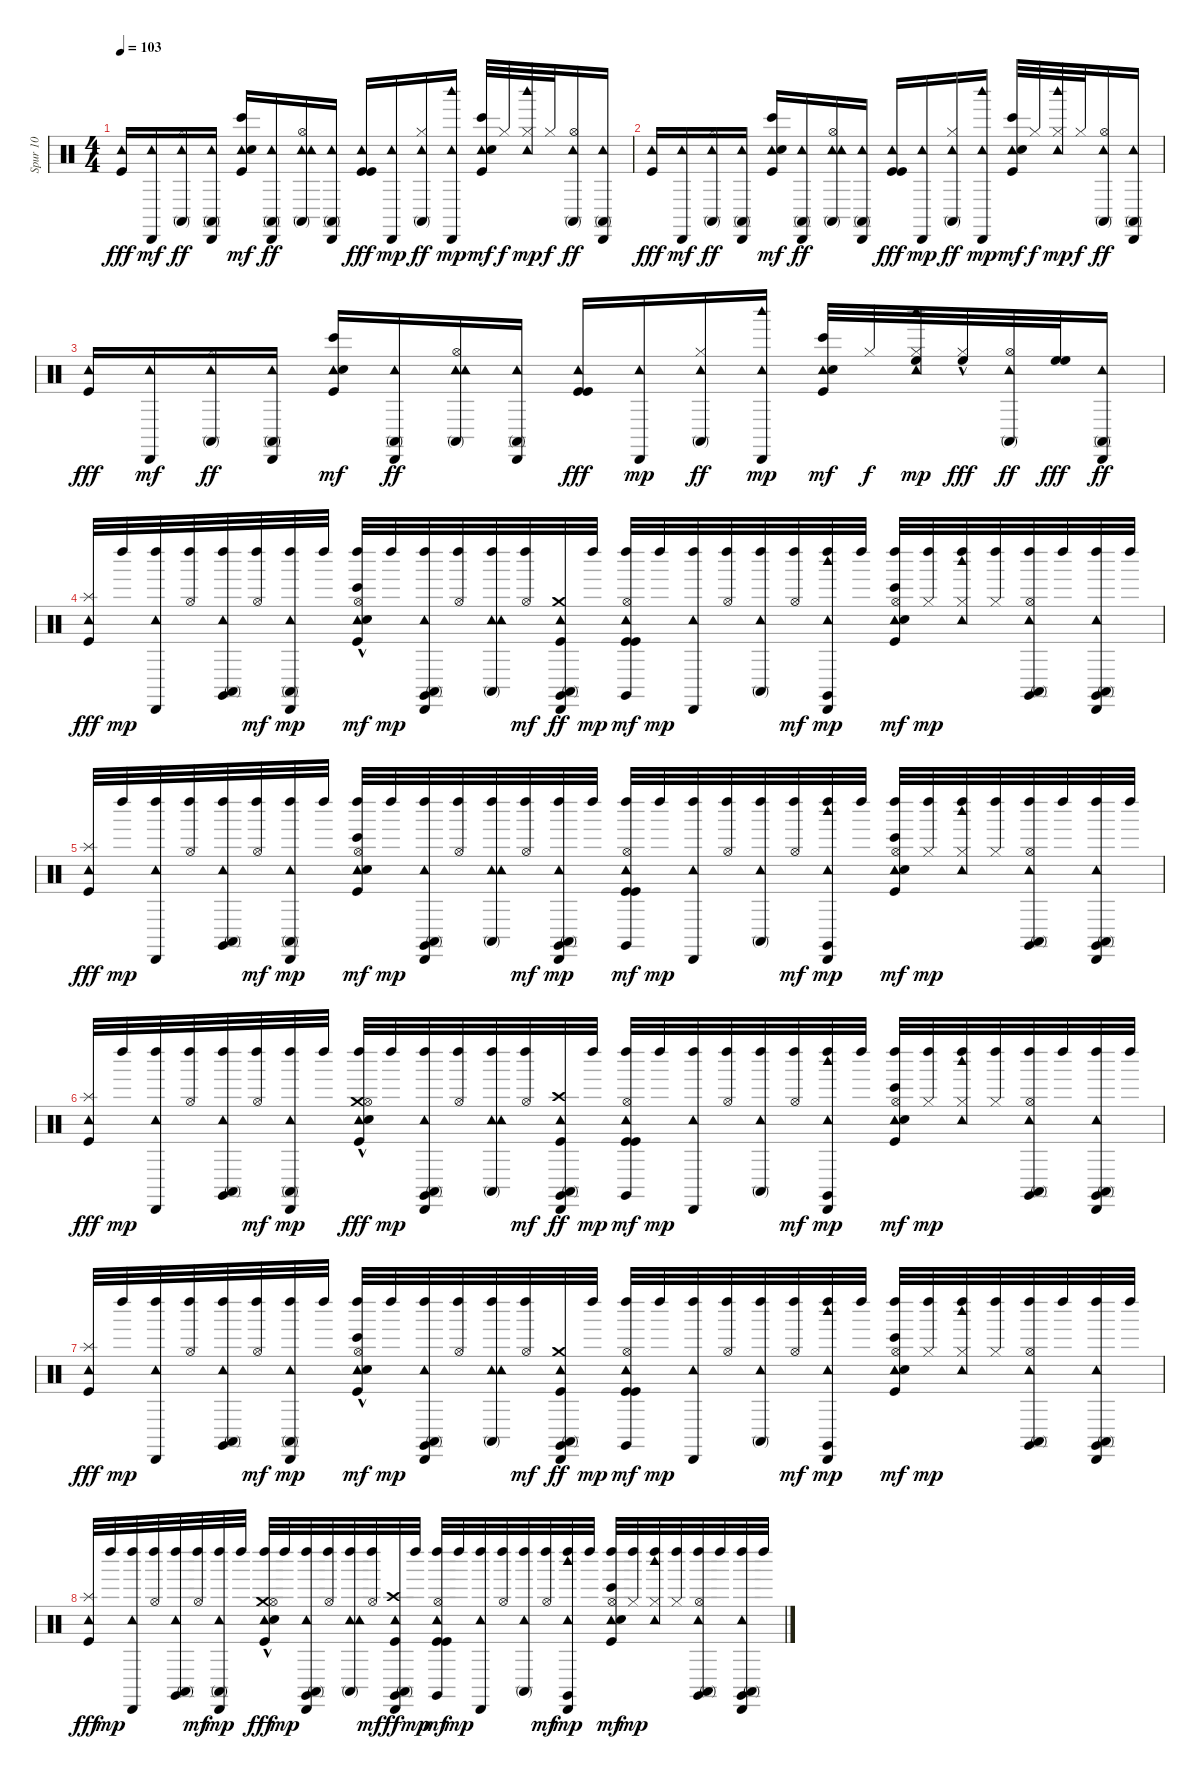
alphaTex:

\track ("Spur 10" "Spur 10") {instrument percussion}
\staff {score}
\articulation defaults
\ts (4 4)
\tempo 103
\clef neutral
\ks c
("Tambourine (hit)" "Kick (hit)").16{dy fff} ("Tambourine (hit)" "Cabasa (hit)").16{dy mf} ("Tambourine (hit)" "Hi-Hat (closed)" "Conga high (mute)").16{dy ff} ("Tambourine (hit)" "Cabasa (hit)" "Conga high (mute)").16 ("Tambourine (hit)" "Kick (hit)" "Electric Snare (hit)" "Bongo High (hit)").16{dy mf} ("Tambourine (hit)" "Cabasa (hit)" "Conga high (mute)").16{dy ff} ("Tambourine (hit)" "Hi-Hat (open)" "Tambourine (hit)" "Conga high (mute)").16 ("Tambourine (hit)" "Cabasa (hit)" "Conga high (mute)").16 ("Tambourine (hit)" "Kick (hit)" "Kick (hit)").16{dy fff} ("Cabasa (hit)" "Tambourine (hit)").16{dy mp} ("Hi-Hat (closed)" "Tambourine (hit)" "Conga high (mute)").16{dy ff} ("Cabasa (hit)" "Tambourine (hit)" "Woodblock high (hit)").16{dy mp} ("Tambourine (hit)" "Kick (hit)" "Electric Snare (hit)" "Bongo High (hit)").32{dy mf} "Hi-Hat (closed)".32{dy f} ("Hi-Hat (closed)" "Tambourine (hit)" "Woodblock high (hit)").32{dy mp} "Hi-Hat (closed)".32{dy f} ("Hi-Hat (open)" "Tambourine (hit)" "Conga high (mute)").16{dy ff} ("Tambourine (hit)" "Cabasa (hit)" "Conga high (mute)").16 |
("Tambourine (hit)" "Kick (hit)").16{dy fff} ("Tambourine (hit)" "Cabasa (hit)").16{dy mf} ("Tambourine (hit)" "Hi-Hat (closed)" "Conga high (mute)").16{dy ff} ("Tambourine (hit)" "Cabasa (hit)" "Conga high (mute)").16 ("Tambourine (hit)" "Kick (hit)" "Electric Snare (hit)" "Bongo High (hit)").16{dy mf} ("Tambourine (hit)" "Cabasa (hit)" "Conga high (mute)").16{dy ff} ("Tambourine (hit)" "Hi-Hat (open)" "Tambourine (hit)" "Conga high (mute)").16 ("Tambourine (hit)" "Cabasa (hit)" "Conga high (mute)").16 ("Tambourine (hit)" "Kick (hit)" "Kick (hit)").16{dy fff} ("Cabasa (hit)" "Tambourine (hit)").16{dy mp} ("Hi-Hat (closed)" "Tambourine (hit)" "Conga high (mute)").16{dy ff} ("Cabasa (hit)" "Tambourine (hit)" "Woodblock high (hit)").16{dy mp} ("Tambourine (hit)" "Kick (hit)" "Electric Snare (hit)" "Bongo High (hit)").32{dy mf} "Hi-Hat (closed)".32{dy f} ("Hi-Hat (closed)" "Tambourine (hit)" "Woodblock high (hit)").32{dy mp} "Hi-Hat (closed)".32{dy f} ("Hi-Hat (open)" "Tambourine (hit)" "Conga high (mute)").16{dy ff} ("Tambourine (hit)" "Cabasa (hit)" "Conga high (mute)").16 |
("Tambourine (hit)" "Kick (hit)").16{dy fff} ("Tambourine (hit)" "Cabasa (hit)").16{dy mf} ("Tambourine (hit)" "Hi-Hat (closed)" "Conga high (mute)").16{dy ff} ("Tambourine (hit)" "Cabasa (hit)" "Conga high (mute)").16 ("Tambourine (hit)" "Kick (hit)" "Electric Snare (hit)" "Bongo High (hit)").16{dy mf} ("Tambourine (hit)" "Cabasa (hit)" "Conga high (mute)").16{dy ff} ("Tambourine (hit)" "Hi-Hat (open)" "Tambourine (hit)" "Conga high (mute)").16 ("Tambourine (hit)" "Cabasa (hit)" "Conga high (mute)").16 ("Tambourine (hit)" "Kick (hit)" "Kick (hit)").16{dy fff} ("Cabasa (hit)" "Tambourine (hit)").16{dy mp} ("Hi-Hat (closed)" "Tambourine (hit)" "Conga high (mute)").16{dy ff} ("Cabasa (hit)" "Tambourine (hit)" "Woodblock high (hit)").16{dy mp} ("Tambourine (hit)" "Kick (hit)" "Electric Snare (hit)" "Bongo High (hit)").32{dy mf} "Hi-Hat (closed)".32{dy f} ("Hi-Hat (closed)" "Tambourine (hit)" "Woodblock high (hit)" "High Floor Tom (hit)").32{dy mp} ("High Floor Tom (hit)"{hac} "Hi-Hat (closed)").32{dy fff} ("Hi-Hat (open)" "Tambourine (hit)" "Conga high (mute)").32{dy ff} ("High Floor Tom (hit)" "High Floor Tom (hit)").32{dy fff} ("Tambourine (hit)" "Cabasa (hit)" "Conga high (mute)").16{dy ff} |
("Tambourine (hit)" "Kick (hit)" "Splash (hit)").32{dy fff} "Left Maraca (hit)".32{dy mp} ("Tambourine (hit)" "Cabasa (hit)" "Left Maraca (hit)").32 ("Hi-Hat (open)" "Left Maraca (hit)").32 ("Claves (hit)" "Tambourine (hit)" "Conga high (mute)" "Left Maraca (hit)").32 ("Left Maraca (hit)" "Hi-Hat (open)").32{dy mf} ("Tambourine (hit)" "Cabasa (hit)" "Conga high (mute)" "Left Maraca (hit)").32{dy mp} "Left Maraca (hit)".32 ("Tambourine (hit)" "Kick (hit)"{hac} "Left Maraca (hit)" "Hi-Hat (open)" "Electric Snare (hit)" "Bongo High (hit)").32{dy mf} "Left Maraca (hit)".32{dy mp} ("Claves (hit)" "Tambourine (hit)" "Cabasa (hit)" "Conga high (mute)" "Left Maraca (hit)").32 ("Hi-Hat (open)" "Left Maraca (hit)").32 ("Tambourine (hit)" "Tambourine (hit)" "Conga high (mute)" "Left Maraca (hit)").32 ("Left Maraca (hit)" "Hi-Hat (open)").32{dy mf} ("Claves (hit)" "Kick (hit)" "Crash medium (hit)" "Tambourine (hit)" "Cabasa (hit)" "Conga high (mute)").32{dy ff} "Left Maraca (hit)".32{dy mp} ("Claves (hit)" "Tambourine (hit)" "Kick (hit)" "Kick (hit)" "Left Maraca (hit)" "Hi-Hat (open)").32{dy mf} "Left Maraca (hit)".32{dy mp} ("Cabasa (hit)" "Tambourine (hit)" "Left Maraca (hit)").32 ("Hi-Hat (open)" "Left Maraca (hit)").32 ("Tambourine (hit)" "Conga high (mute)" "Left Maraca (hit)").32 ("Left Maraca (hit)" "Hi-Hat (open)").32{dy mf} ("Claves (hit)" "Cabasa (hit)" "Tambourine (hit)" "Woodblock high (hit)" "Left Maraca (hit)").32{dy mp} "Left Maraca (hit)".32 ("Tambourine (hit)" "Kick (hit)" "Left Maraca (hit)" "Hi-Hat (open)" "Electric Snare (hit)" "Bongo High (hit)").32{dy mf} ("Hi-Hat (closed)" "Left Maraca (hit)").32{dy mp} ("Hi-Hat (closed)" "Tambourine (hit)" "Woodblock high (hit)" "Left Maraca (hit)").32 ("Hi-Hat (closed)" "Left Maraca (hit)").32 ("Hi-Hat (open)" "Claves (hit)" "Tambourine (hit)" "Conga high (mute)" "Left Maraca (hit)").32 "Left Maraca (hit)".32 ("Claves (hit)" "Tambourine (hit)" "Cabasa (hit)" "Conga high (mute)" "Left Maraca (hit)").32 "Left Maraca (hit)".32 |
("Tambourine (hit)" "Kick (hit)" "Splash (hit)").32{dy fff} "Left Maraca (hit)".32{dy mp} ("Tambourine (hit)" "Cabasa (hit)" "Left Maraca (hit)").32 ("Hi-Hat (open)" "Left Maraca (hit)").32 ("Claves (hit)" "Tambourine (hit)" "Conga high (mute)" "Left Maraca (hit)").32 ("Left Maraca (hit)" "Hi-Hat (open)").32{dy mf} ("Tambourine (hit)" "Cabasa (hit)" "Conga high (mute)" "Left Maraca (hit)").32{dy mp} "Left Maraca (hit)".32 ("Tambourine (hit)" "Kick (hit)" "Left Maraca (hit)" "Hi-Hat (open)" "Electric Snare (hit)" "Bongo High (hit)").32{dy mf} "Left Maraca (hit)".32{dy mp} ("Claves (hit)" "Tambourine (hit)" "Cabasa (hit)" "Conga high (mute)" "Left Maraca (hit)").32 ("Hi-Hat (open)" "Left Maraca (hit)").32 ("Tambourine (hit)" "Tambourine (hit)" "Conga high (mute)" "Left Maraca (hit)").32 ("Left Maraca (hit)" "Hi-Hat (open)").32{dy mf} ("Claves (hit)" "Tambourine (hit)" "Cabasa (hit)" "Conga high (mute)" "Left Maraca (hit)").32{dy mp} "Left Maraca (hit)".32 ("Claves (hit)" "Tambourine (hit)" "Kick (hit)" "Kick (hit)" "Left Maraca (hit)" "Hi-Hat (open)").32{dy mf} "Left Maraca (hit)".32{dy mp} ("Cabasa (hit)" "Tambourine (hit)" "Left Maraca (hit)").32 ("Hi-Hat (open)" "Left Maraca (hit)").32 ("Tambourine (hit)" "Conga high (mute)" "Left Maraca (hit)").32 ("Left Maraca (hit)" "Hi-Hat (open)").32{dy mf} ("Claves (hit)" "Cabasa (hit)" "Tambourine (hit)" "Woodblock high (hit)" "Left Maraca (hit)").32{dy mp} "Left Maraca (hit)".32 ("Tambourine (hit)" "Kick (hit)" "Left Maraca (hit)" "Hi-Hat (open)" "Electric Snare (hit)" "Bongo High (hit)").32{dy mf} ("Hi-Hat (closed)" "Left Maraca (hit)").32{dy mp} ("Hi-Hat (closed)" "Tambourine (hit)" "Woodblock high (hit)" "Left Maraca (hit)").32 ("Hi-Hat (closed)" "Left Maraca (hit)").32 ("Hi-Hat (open)" "Claves (hit)" "Tambourine (hit)" "Conga high (mute)" "Left Maraca (hit)").32 "Left Maraca (hit)".32 ("Claves (hit)" "Tambourine (hit)" "Cabasa (hit)" "Conga high (mute)" "Left Maraca (hit)").32 "Left Maraca (hit)".32 |
("Tambourine (hit)" "Kick (hit)" "Splash (hit)").32{dy fff} "Left Maraca (hit)".32{dy mp} ("Tambourine (hit)" "Cabasa (hit)" "Left Maraca (hit)").32 ("Hi-Hat (open)" "Left Maraca (hit)").32 ("Claves (hit)" "Tambourine (hit)" "Conga high (mute)" "Left Maraca (hit)").32 ("Left Maraca (hit)" "Hi-Hat (open)").32{dy mf} ("Tambourine (hit)" "Cabasa (hit)" "Conga high (mute)" "Left Maraca (hit)").32{dy mp} "Left Maraca (hit)".32 ("Crash medium (hit)" "Tambourine (hit)" "Kick (hit)"{hac} "Left Maraca (hit)" "Hi-Hat (open)" "Electric Snare (hit)").32{dy fff} "Left Maraca (hit)".32{dy mp} ("Claves (hit)" "Tambourine (hit)" "Cabasa (hit)" "Conga high (mute)" "Left Maraca (hit)").32 ("Hi-Hat (open)" "Left Maraca (hit)").32 ("Tambourine (hit)" "Tambourine (hit)" "Conga high (mute)" "Left Maraca (hit)").32 ("Left Maraca (hit)" "Hi-Hat (open)").32{dy mf} ("Claves (hit)" "Kick (hit)" "Crash high (hit)" "Tambourine (hit)" "Cabasa (hit)" "Conga high (mute)").32{dy ff} "Left Maraca (hit)".32{dy mp} ("Claves (hit)" "Tambourine (hit)" "Kick (hit)" "Kick (hit)" "Left Maraca (hit)" "Hi-Hat (open)").32{dy mf} "Left Maraca (hit)".32{dy mp} ("Cabasa (hit)" "Tambourine (hit)" "Left Maraca (hit)").32 ("Hi-Hat (open)" "Left Maraca (hit)").32 ("Tambourine (hit)" "Conga high (mute)" "Left Maraca (hit)").32 ("Left Maraca (hit)" "Hi-Hat (open)").32{dy mf} ("Claves (hit)" "Cabasa (hit)" "Tambourine (hit)" "Woodblock high (hit)" "Left Maraca (hit)").32{dy mp} "Left Maraca (hit)".32 ("Tambourine (hit)" "Kick (hit)" "Left Maraca (hit)" "Hi-Hat (open)" "Electric Snare (hit)" "Bongo High (hit)").32{dy mf} ("Hi-Hat (closed)" "Left Maraca (hit)").32{dy mp} ("Hi-Hat (closed)" "Tambourine (hit)" "Woodblock high (hit)" "Left Maraca (hit)").32 ("Hi-Hat (closed)" "Left Maraca (hit)").32 ("Hi-Hat (open)" "Claves (hit)" "Tambourine (hit)" "Conga high (mute)" "Left Maraca (hit)").32 "Left Maraca (hit)".32 ("Claves (hit)" "Tambourine (hit)" "Cabasa (hit)" "Conga high (mute)" "Left Maraca (hit)").32 "Left Maraca (hit)".32 |
("Tambourine (hit)" "Kick (hit)" "Splash (hit)").32{dy fff} "Left Maraca (hit)".32{dy mp} ("Tambourine (hit)" "Cabasa (hit)" "Left Maraca (hit)").32 ("Hi-Hat (open)" "Left Maraca (hit)").32 ("Claves (hit)" "Tambourine (hit)" "Conga high (mute)" "Left Maraca (hit)").32 ("Left Maraca (hit)" "Hi-Hat (open)").32{dy mf} ("Tambourine (hit)" "Cabasa (hit)" "Conga high (mute)" "Left Maraca (hit)").32{dy mp} "Left Maraca (hit)".32 ("Tambourine (hit)" "Kick (hit)"{hac} "Left Maraca (hit)" "Hi-Hat (open)" "Electric Snare (hit)" "Bongo High (hit)").32{dy mf} "Left Maraca (hit)".32{dy mp} ("Claves (hit)" "Tambourine (hit)" "Cabasa (hit)" "Conga high (mute)" "Left Maraca (hit)").32 ("Hi-Hat (open)" "Left Maraca (hit)").32 ("Tambourine (hit)" "Tambourine (hit)" "Conga high (mute)" "Left Maraca (hit)").32 ("Left Maraca (hit)" "Hi-Hat (open)").32{dy mf} ("Claves (hit)" "Kick (hit)" "Crash medium (hit)" "Tambourine (hit)" "Cabasa (hit)" "Conga high (mute)").32{dy ff} "Left Maraca (hit)".32{dy mp} ("Claves (hit)" "Tambourine (hit)" "Kick (hit)" "Kick (hit)" "Left Maraca (hit)" "Hi-Hat (open)").32{dy mf} "Left Maraca (hit)".32{dy mp} ("Cabasa (hit)" "Tambourine (hit)" "Left Maraca (hit)").32 ("Hi-Hat (open)" "Left Maraca (hit)").32 ("Tambourine (hit)" "Conga high (mute)" "Left Maraca (hit)").32 ("Left Maraca (hit)" "Hi-Hat (open)").32{dy mf} ("Claves (hit)" "Cabasa (hit)" "Tambourine (hit)" "Woodblock high (hit)" "Left Maraca (hit)").32{dy mp} "Left Maraca (hit)".32 ("Tambourine (hit)" "Kick (hit)" "Left Maraca (hit)" "Hi-Hat (open)" "Electric Snare (hit)" "Bongo High (hit)").32{dy mf} ("Hi-Hat (closed)" "Left Maraca (hit)").32{dy mp} ("Hi-Hat (closed)" "Tambourine (hit)" "Woodblock high (hit)" "Left Maraca (hit)").32 ("Hi-Hat (closed)" "Left Maraca (hit)").32 ("Hi-Hat (open)" "Claves (hit)" "Tambourine (hit)" "Conga high (mute)" "Left Maraca (hit)").32 "Left Maraca (hit)".32 ("Claves (hit)" "Tambourine (hit)" "Cabasa (hit)" "Conga high (mute)" "Left Maraca (hit)").32 "Left Maraca (hit)".32 |
("Tambourine (hit)" "Kick (hit)" "Splash (hit)").32{dy fff} "Left Maraca (hit)".32{dy mp} ("Tambourine (hit)" "Cabasa (hit)" "Left Maraca (hit)").32 ("Hi-Hat (open)" "Left Maraca (hit)").32 ("Claves (hit)" "Tambourine (hit)" "Conga high (mute)" "Left Maraca (hit)").32 ("Left Maraca (hit)" "Hi-Hat (open)").32{dy mf} ("Tambourine (hit)" "Cabasa (hit)" "Conga high (mute)" "Left Maraca (hit)").32{dy mp} "Left Maraca (hit)".32 ("Crash medium (hit)" "Tambourine (hit)" "Kick (hit)"{hac} "Left Maraca (hit)" "Hi-Hat (open)" "Electric Snare (hit)").32{dy fff} "Left Maraca (hit)".32{dy mp} ("Claves (hit)" "Tambourine (hit)" "Cabasa (hit)" "Conga high (mute)" "Left Maraca (hit)").32 ("Hi-Hat (open)" "Left Maraca (hit)").32 ("Tambourine (hit)" "Tambourine (hit)" "Conga high (mute)" "Left Maraca (hit)").32 ("Left Maraca (hit)" "Hi-Hat (open)").32{dy mf} ("Claves (hit)" "Kick (hit)" "Crash high (hit)" "Tambourine (hit)" "Cabasa (hit)" "Conga high (mute)").32{dy ff} "Left Maraca (hit)".32{dy mp} ("Claves (hit)" "Tambourine (hit)" "Kick (hit)" "Kick (hit)" "Left Maraca (hit)" "Hi-Hat (open)").32{dy mf} "Left Maraca (hit)".32{dy mp} ("Cabasa (hit)" "Tambourine (hit)" "Left Maraca (hit)").32 ("Hi-Hat (open)" "Left Maraca (hit)").32 ("Tambourine (hit)" "Conga high (mute)" "Left Maraca (hit)").32 ("Left Maraca (hit)" "Hi-Hat (open)").32{dy mf} ("Claves (hit)" "Cabasa (hit)" "Tambourine (hit)" "Woodblock high (hit)" "Left Maraca (hit)").32{dy mp} "Left Maraca (hit)".32 ("Tambourine (hit)" "Kick (hit)" "Left Maraca (hit)" "Hi-Hat (open)" "Electric Snare (hit)" "Bongo High (hit)").32{dy mf} ("Hi-Hat (closed)" "Left Maraca (hit)").32{dy mp} ("Hi-Hat (closed)" "Tambourine (hit)" "Woodblock high (hit)" "Left Maraca (hit)").32 ("Hi-Hat (closed)" "Left Maraca (hit)").32 ("Hi-Hat (open)" "Claves (hit)" "Tambourine (hit)" "Conga high (mute)" "Left Maraca (hit)").32 "Left Maraca (hit)".32 ("Claves (hit)" "Tambourine (hit)" "Cabasa (hit)" "Conga high (mute)" "Left Maraca (hit)").32 "Left Maraca (hit)".32
